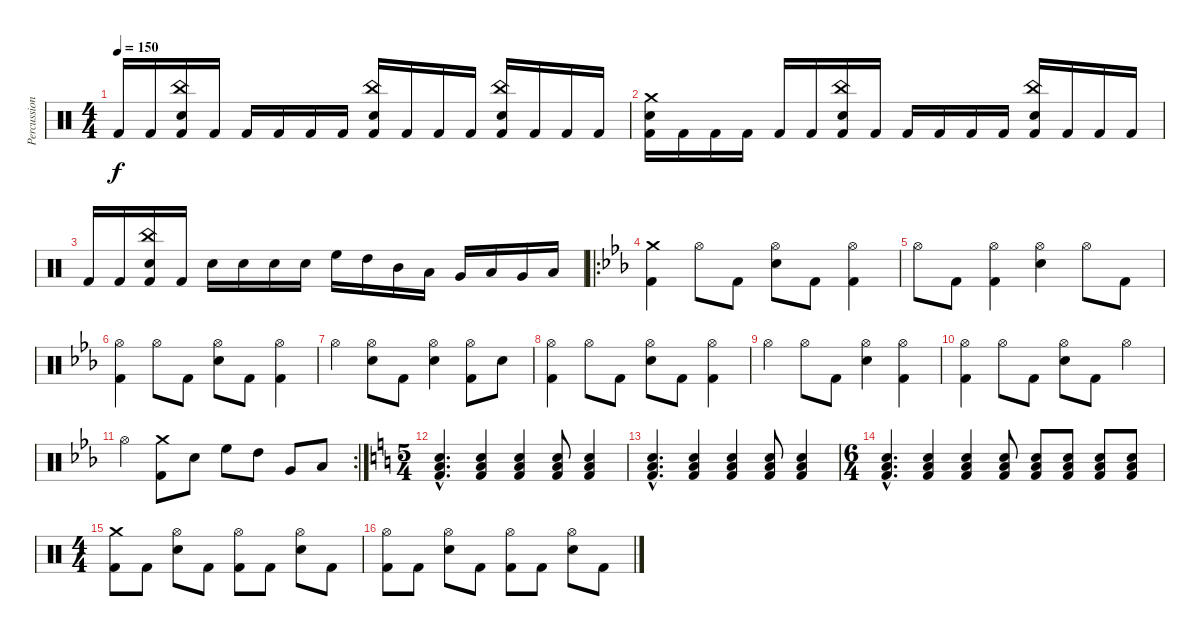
\track ("Percussion" "Percussion") {instrument percussion}
\staff {score}
\articulation defaults
\ts (4 4)
\tempo 150
\clef neutral
\ks aminor "Kick (hit) 2".16{dy f} "Kick (hit) 2".16
("China (hit)" "Electric Snare (hit)" "Kick (hit) 2").16 "Kick (hit) 2".16 "Kick (hit) 2".16 "Kick (hit) 2".16 "Kick (hit) 2".16 "Kick (hit) 2".16 ("China (hit)" "Electric Snare (hit)" "Kick (hit) 2").16 "Kick (hit) 2".16 "Kick (hit) 2".16 "Kick (hit) 2".16 ("China (hit)" "Electric Snare (hit)" "Kick (hit) 2").16 "Kick (hit) 2".16 "Kick (hit) 2".16 "Kick (hit) 2".16 |
("Crash medium (hit)" "Electric Snare (hit)" "Kick (hit) 2").16 "Kick (hit) 2".16 "Kick (hit) 2".16 "Kick (hit) 2".16 "Kick (hit) 2".16 "Kick (hit) 2".16 ("China (hit)" "Electric Snare (hit)" "Kick (hit) 2").16 "Kick (hit) 2".16 "Kick (hit) 2".16 "Kick (hit) 2".16 "Kick (hit) 2".16 "Kick (hit) 2".16 ("China (hit)" "Electric Snare (hit)" "Kick (hit) 2").16 "Kick (hit) 2".16 "Kick (hit) 2".16 "Kick (hit) 2".16 |
"Kick (hit) 2".16 "Kick (hit) 2".16 ("China (hit)" "Electric Snare (hit)" "Kick (hit) 2").16 "Kick (hit) 2".16 "Electric Snare (hit)".16 "Electric Snare (hit)".16 "Electric Snare (hit)".16 "Electric Snare (hit)".16 "High Floor Tom (hit)".16 "High Tom (hit)".16 "Mid Tom (hit)".16 "Low Tom (hit)".16 "Very Low Tom (hit)".16 "Low Tom (hit)".16 "Very Low Tom (hit)".16 "Low Floor Tom (hit)".16 |
\ro
\ks cminor
("Crash medium (hit)" "Kick (hit) 2").4 "Hi-Hat (open)".8 "Kick (hit) 2".8 ("Hi-Hat (open)" "Electric Snare (hit)").8 "Kick (hit) 2".8 ("Hi-Hat (open)" "Kick (hit) 2").4 |
"Hi-Hat (open)".8 "Kick (hit) 2".8 ("Hi-Hat (open)" "Kick (hit) 2").4 ("Hi-Hat (open)" "Electric Snare (hit)").4 "Hi-Hat (open)".8 "Kick (hit) 2".8 |
("Hi-Hat (open)" "Kick (hit) 2").4 "Hi-Hat (open)".8 "Kick (hit) 2".8 ("Hi-Hat (open)" "Electric Snare (hit)").8 "Kick (hit) 2".8 ("Hi-Hat (open)" "Kick (hit) 2").4 |
"Hi-Hat (open)".4 ("Hi-Hat (open)" "Electric Snare (hit)").8 "Kick (hit) 2".8 ("Hi-Hat (open)" "Electric Snare (hit)").4 ("Hi-Hat (open)" "Kick (hit) 2").8 "Electric Snare (hit)".8 |
("Hi-Hat (open)" "Kick (hit) 2").4 "Hi-Hat (open)".8 "Kick (hit) 2".8 ("Hi-Hat (open)" "Electric Snare (hit)").8 "Kick (hit) 2".8 ("Hi-Hat (open)" "Kick (hit) 2").4 |
"Hi-Hat (open)".4 "Hi-Hat (open)".8 "Kick (hit) 2".8 ("Hi-Hat (open)" "Electric Snare (hit)").4 ("Hi-Hat (open)" "Kick (hit) 2").4 |
("Hi-Hat (open)" "Kick (hit) 2").4 "Hi-Hat (open)".8 "Kick (hit) 2".8 ("Hi-Hat (open)" "Electric Snare (hit)").8 "Kick (hit) 2".8 "Hi-Hat (open)".4 |
\rc 2 "Hi-Hat (open)".4
("Crash medium (hit)" "Kick (hit) 2").8 "Electric Snare (hit)".8 "High Floor Tom (hit)".8 "High Tom (hit)".8 "Very Low Tom (hit)".8 "Low Floor Tom (hit)".8 |
\ts (5 4)
\ks aminor
("Low Floor Tom (hit)"{hac} "Electric Snare (hit)"{hac} "Kick (hit) 2"{hac}).4{d} ("Low Floor Tom (hit)" "Electric Snare (hit)" "Kick (hit) 2").4 ("Low Floor Tom (hit)" "Electric Snare (hit)" "Kick (hit) 2").4 ("Low Floor Tom (hit)" "Electric Snare (hit)" "Kick (hit) 2").8 ("Low Floor Tom (hit)" "Electric Snare (hit)" "Kick (hit) 2").4 |
("Low Floor Tom (hit)"{hac} "Electric Snare (hit)"{hac} "Kick (hit) 2"{hac}).4{d} ("Low Floor Tom (hit)" "Electric Snare (hit)" "Kick (hit) 2").4 ("Low Floor Tom (hit)" "Electric Snare (hit)" "Kick (hit) 2").4 ("Low Floor Tom (hit)" "Electric Snare (hit)" "Kick (hit) 2").8 ("Low Floor Tom (hit)" "Electric Snare (hit)" "Kick (hit) 2").4 |
\ts (6 4)
("Low Floor Tom (hit)"{hac} "Electric Snare (hit)"{hac} "Kick (hit) 2"{hac}).4{d} ("Low Floor Tom (hit)" "Electric Snare (hit)" "Kick (hit) 2").4 ("Low Floor Tom (hit)" "Electric Snare (hit)" "Kick (hit) 2").4 ("Low Floor Tom (hit)" "Electric Snare (hit)" "Kick (hit) 2").8 ("Low Floor Tom (hit)" "Electric Snare (hit)" "Kick (hit) 2").8 ("Low Floor Tom (hit)" "Electric Snare (hit)" "Kick (hit) 2").8 ("Low Floor Tom (hit)" "Electric Snare (hit)" "Kick (hit) 2").8 ("Low Floor Tom (hit)" "Electric Snare (hit)" "Kick (hit) 2").8 |
\ts (4 4)
("Crash medium (hit)" "Kick (hit) 2").8 "Kick (hit) 2".8 ("Hi-Hat (open)" "Electric Snare (hit)").8 "Kick (hit) 2".8 ("Hi-Hat (open)" "Kick (hit) 2").8 "Kick (hit) 2".8 ("Hi-Hat (open)" "Electric Snare (hit)").8 "Kick (hit) 2".8 |
("Hi-Hat (open)" "Kick (hit) 2").8 "Kick (hit) 2".8 ("Hi-Hat (open)" "Electric Snare (hit)").8 "Kick (hit) 2".8 ("Hi-Hat (open)" "Kick (hit) 2").8 "Kick (hit) 2".8 ("Hi-Hat (open)" "Electric Snare (hit)").8 "Kick (hit) 2".8
